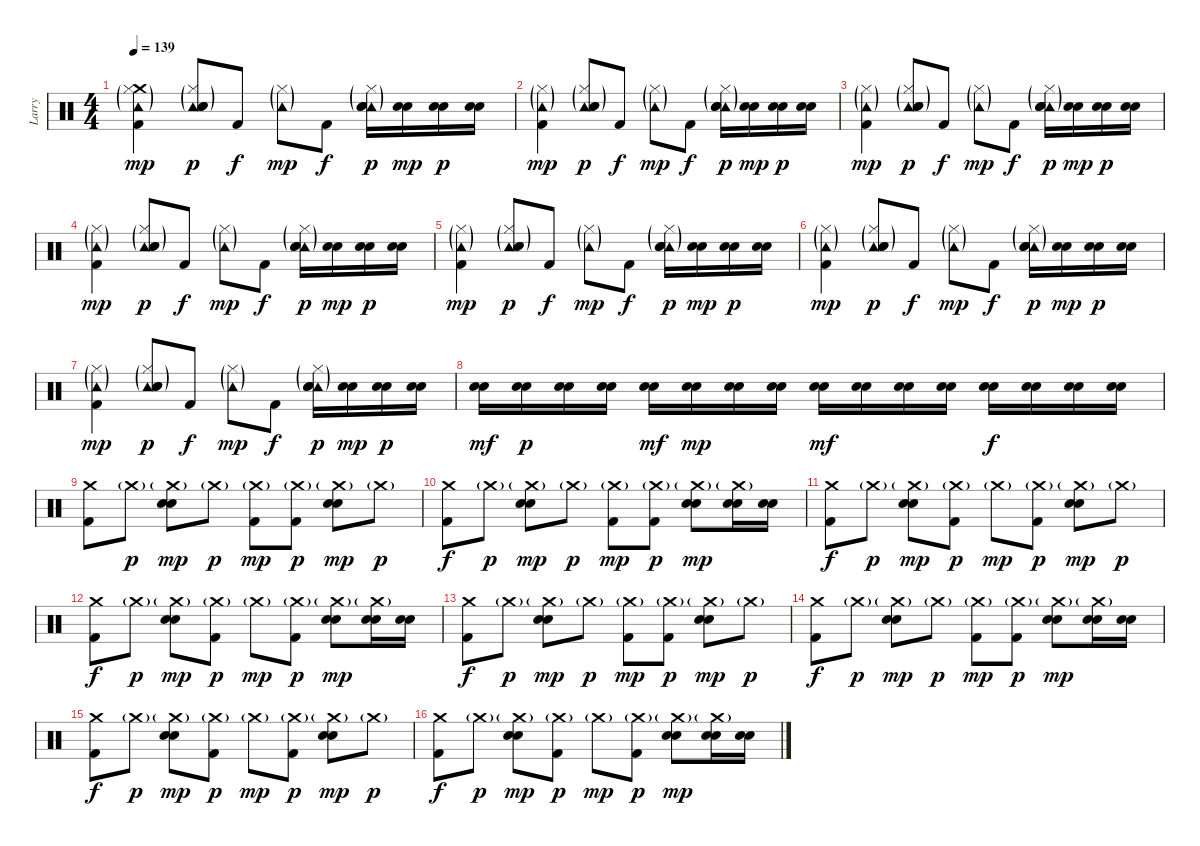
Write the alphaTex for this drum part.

\track ("Larry" "Larry") {instrument percussion}
\staff {score}
\articulation defaults
\ts (4 4)
\tempo 139
\clef neutral
\ks c
("Crash medium (hit)" "Tambourine (hit)"{g} "Kick (hit) 2" "Hi-Hat (closed)"{g}).4{dy mp} ("Tambourine (hit)"{g} "Snare (hit) 2" "Electric Snare (hit)" "Hi-Hat (closed)"{g}).8{dy p} "Kick (hit) 2".8{dy f} ("Tambourine (hit)"{g} "Hi-Hat (closed)"{g}).8{dy mp} "Kick (hit) 2".8{dy f} ("Tambourine (hit)"{g} "Snare (hit) 2" "Electric Snare (hit)" "Hi-Hat (closed)"{g}).16{dy p} ("Snare (hit) 2" "Electric Snare (hit)").16{dy mp} ("Snare (hit) 2" "Electric Snare (hit)").16{dy p} ("Snare (hit) 2" "Electric Snare (hit)").16 |
("Tambourine (hit)"{g} "Kick (hit) 2" "Hi-Hat (closed)"{g}).4{dy mp} ("Tambourine (hit)"{g} "Snare (hit) 2" "Electric Snare (hit)" "Hi-Hat (closed)"{g}).8{dy p} "Kick (hit) 2".8{dy f} ("Tambourine (hit)"{g} "Hi-Hat (closed)"{g}).8{dy mp} "Kick (hit) 2".8{dy f} ("Tambourine (hit)"{g} "Snare (hit) 2" "Electric Snare (hit)" "Hi-Hat (closed)"{g}).16{dy p} ("Snare (hit) 2" "Electric Snare (hit)").16{dy mp} ("Snare (hit) 2" "Electric Snare (hit)").16{dy p} ("Snare (hit) 2" "Electric Snare (hit)").16 |
("Tambourine (hit)"{g} "Kick (hit) 2" "Hi-Hat (closed)"{g}).4{dy mp} ("Tambourine (hit)"{g} "Snare (hit) 2" "Electric Snare (hit)" "Hi-Hat (closed)"{g}).8{dy p} "Kick (hit) 2".8{dy f} ("Tambourine (hit)"{g} "Hi-Hat (closed)"{g}).8{dy mp} "Kick (hit) 2".8{dy f} ("Tambourine (hit)"{g} "Snare (hit) 2" "Electric Snare (hit)" "Hi-Hat (closed)"{g}).16{dy p} ("Snare (hit) 2" "Electric Snare (hit)").16{dy mp} ("Snare (hit) 2" "Electric Snare (hit)").16{dy p} ("Snare (hit) 2" "Electric Snare (hit)").16 |
("Tambourine (hit)"{g} "Kick (hit) 2" "Hi-Hat (closed)"{g}).4{dy mp} ("Tambourine (hit)"{g} "Snare (hit) 2" "Electric Snare (hit)" "Hi-Hat (closed)"{g}).8{dy p} "Kick (hit) 2".8{dy f} ("Tambourine (hit)"{g} "Hi-Hat (closed)"{g}).8{dy mp} "Kick (hit) 2".8{dy f} ("Tambourine (hit)"{g} "Snare (hit) 2" "Electric Snare (hit)" "Hi-Hat (closed)"{g}).16{dy p} ("Snare (hit) 2" "Electric Snare (hit)").16{dy mp} ("Snare (hit) 2" "Electric Snare (hit)").16{dy p} ("Snare (hit) 2" "Electric Snare (hit)").16 |
("Tambourine (hit)"{g} "Kick (hit) 2" "Hi-Hat (closed)"{g}).4{dy mp} ("Tambourine (hit)"{g} "Snare (hit) 2" "Electric Snare (hit)" "Hi-Hat (closed)"{g}).8{dy p} "Kick (hit) 2".8{dy f} ("Tambourine (hit)"{g} "Hi-Hat (closed)"{g}).8{dy mp} "Kick (hit) 2".8{dy f} ("Tambourine (hit)"{g} "Snare (hit) 2" "Electric Snare (hit)" "Hi-Hat (closed)"{g}).16{dy p} ("Snare (hit) 2" "Electric Snare (hit)").16{dy mp} ("Snare (hit) 2" "Electric Snare (hit)").16{dy p} ("Snare (hit) 2" "Electric Snare (hit)").16 |
("Tambourine (hit)"{g} "Kick (hit) 2" "Hi-Hat (closed)"{g}).4{dy mp} ("Tambourine (hit)"{g} "Snare (hit) 2" "Electric Snare (hit)" "Hi-Hat (closed)"{g}).8{dy p} "Kick (hit) 2".8{dy f} ("Tambourine (hit)"{g} "Hi-Hat (closed)"{g}).8{dy mp} "Kick (hit) 2".8{dy f} ("Tambourine (hit)"{g} "Snare (hit) 2" "Electric Snare (hit)" "Hi-Hat (closed)"{g}).16{dy p} ("Snare (hit) 2" "Electric Snare (hit)").16{dy mp} ("Snare (hit) 2" "Electric Snare (hit)").16{dy p} ("Snare (hit) 2" "Electric Snare (hit)").16 |
("Tambourine (hit)"{g} "Kick (hit) 2" "Hi-Hat (closed)"{g}).4{dy mp} ("Tambourine (hit)"{g} "Snare (hit) 2" "Electric Snare (hit)" "Hi-Hat (closed)"{g}).8{dy p} "Kick (hit) 2".8{dy f} ("Tambourine (hit)"{g} "Hi-Hat (closed)"{g}).8{dy mp} "Kick (hit) 2".8{dy f} ("Tambourine (hit)"{g} "Snare (hit) 2" "Electric Snare (hit)" "Hi-Hat (closed)"{g}).16{dy p} ("Snare (hit) 2" "Electric Snare (hit)").16{dy mp} ("Snare (hit) 2" "Electric Snare (hit)").16{dy p} ("Snare (hit) 2" "Electric Snare (hit)").16 |
("Snare (hit) 2" "Electric Snare (hit)").16{dy mf} ("Snare (hit) 2" "Electric Snare (hit)").16{dy p} ("Snare (hit) 2" "Electric Snare (hit)").16 ("Snare (hit) 2" "Electric Snare (hit)").16 ("Snare (hit) 2" "Electric Snare (hit)").16{dy mf} ("Snare (hit) 2" "Electric Snare (hit)").16{dy mp} ("Snare (hit) 2" "Electric Snare (hit)").16 ("Snare (hit) 2" "Electric Snare (hit)").16 ("Snare (hit) 2" "Electric Snare (hit)").16{dy mf} ("Snare (hit) 2" "Electric Snare (hit)").16 ("Snare (hit) 2" "Electric Snare (hit)").16 ("Snare (hit) 2" "Electric Snare (hit)").16 ("Snare (hit) 2" "Electric Snare (hit)").16{dy f} ("Snare (hit) 2" "Electric Snare (hit)").16 ("Snare (hit) 2" "Electric Snare (hit)").16 ("Snare (hit) 2" "Electric Snare (hit)").16 |
("Crash medium (hit)" "Kick (hit) 2").8 "Crash medium (hit)"{g}.8{dy p} ("Crash medium (hit)"{g} "Snare (hit) 2" "Electric Snare (hit)").8{dy mp} "Crash medium (hit)"{g}.8{dy p} ("Crash medium (hit)"{g} "Kick (hit) 2").8{dy mp} ("Crash medium (hit)"{g} "Kick (hit) 2").8{dy p} ("Crash medium (hit)"{g} "Snare (hit) 2" "Electric Snare (hit)").8{dy mp} "Crash medium (hit)"{g}.8{dy p} |
("Crash medium (hit)" "Kick (hit) 2").8{dy f} "Crash medium (hit)"{g}.8{dy p} ("Crash medium (hit)"{g} "Snare (hit) 2" "Electric Snare (hit)").8{dy mp} "Crash medium (hit)"{g}.8{dy p} ("Crash medium (hit)"{g} "Kick (hit) 2").8{dy mp} ("Crash medium (hit)"{g} "Kick (hit) 2").8{dy p} ("Crash medium (hit)"{g} "Snare (hit) 2" "Electric Snare (hit)").8{dy mp} ("Crash medium (hit)"{g} "Snare (hit) 2" "Electric Snare (hit)").16 ("Snare (hit) 2" "Electric Snare (hit)").16 |
("Crash medium (hit)" "Kick (hit) 2").8{dy f} "Crash medium (hit)"{g}.8{dy p} ("Crash medium (hit)"{g} "Snare (hit) 2" "Electric Snare (hit)").8{dy mp} ("Crash medium (hit)"{g} "Kick (hit) 2").8{dy p} "Crash medium (hit)"{g}.8{dy mp} ("Crash medium (hit)"{g} "Kick (hit) 2").8{dy p} ("Crash medium (hit)"{g} "Snare (hit) 2" "Electric Snare (hit)").8{dy mp} "Crash medium (hit)"{g}.8{dy p} |
("Crash medium (hit)" "Kick (hit) 2").8{dy f} "Crash medium (hit)"{g}.8{dy p} ("Crash medium (hit)"{g} "Snare (hit) 2" "Electric Snare (hit)").8{dy mp} ("Crash medium (hit)"{g} "Kick (hit) 2").8{dy p} "Crash medium (hit)"{g}.8{dy mp} ("Crash medium (hit)"{g} "Kick (hit) 2").8{dy p} ("Crash medium (hit)"{g} "Snare (hit) 2" "Electric Snare (hit)").8{dy mp} ("Crash medium (hit)"{g} "Snare (hit) 2" "Electric Snare (hit)").16 ("Snare (hit) 2" "Electric Snare (hit)").16 |
("Crash medium (hit)" "Kick (hit) 2").8{dy f} "Crash medium (hit)"{g}.8{dy p} ("Crash medium (hit)"{g} "Snare (hit) 2" "Electric Snare (hit)").8{dy mp} "Crash medium (hit)"{g}.8{dy p} ("Crash medium (hit)"{g} "Kick (hit) 2").8{dy mp} ("Crash medium (hit)"{g} "Kick (hit) 2").8{dy p} ("Crash medium (hit)"{g} "Snare (hit) 2" "Electric Snare (hit)").8{dy mp} "Crash medium (hit)"{g}.8{dy p} |
("Crash medium (hit)" "Kick (hit) 2").8{dy f} "Crash medium (hit)"{g}.8{dy p} ("Crash medium (hit)"{g} "Snare (hit) 2" "Electric Snare (hit)").8{dy mp} "Crash medium (hit)"{g}.8{dy p} ("Crash medium (hit)"{g} "Kick (hit) 2").8{dy mp} ("Crash medium (hit)"{g} "Kick (hit) 2").8{dy p} ("Crash medium (hit)"{g} "Snare (hit) 2" "Electric Snare (hit)").8{dy mp} ("Crash medium (hit)"{g} "Snare (hit) 2" "Electric Snare (hit)").16 ("Snare (hit) 2" "Electric Snare (hit)").16 |
("Crash medium (hit)" "Kick (hit) 2").8{dy f} "Crash medium (hit)"{g}.8{dy p} ("Crash medium (hit)"{g} "Snare (hit) 2" "Electric Snare (hit)").8{dy mp} ("Crash medium (hit)"{g} "Kick (hit) 2").8{dy p} "Crash medium (hit)"{g}.8{dy mp} ("Crash medium (hit)"{g} "Kick (hit) 2").8{dy p} ("Crash medium (hit)"{g} "Snare (hit) 2" "Electric Snare (hit)").8{dy mp} "Crash medium (hit)"{g}.8{dy p} |
("Crash medium (hit)" "Kick (hit) 2").8{dy f} "Crash medium (hit)"{g}.8{dy p} ("Crash medium (hit)"{g} "Snare (hit) 2" "Electric Snare (hit)").8{dy mp} ("Crash medium (hit)"{g} "Kick (hit) 2").8{dy p} "Crash medium (hit)"{g}.8{dy mp} ("Crash medium (hit)"{g} "Kick (hit) 2").8{dy p} ("Crash medium (hit)"{g} "Snare (hit) 2" "Electric Snare (hit)").8{dy mp} ("Crash medium (hit)"{g} "Snare (hit) 2" "Electric Snare (hit)").16 ("Snare (hit) 2" "Electric Snare (hit)").16
